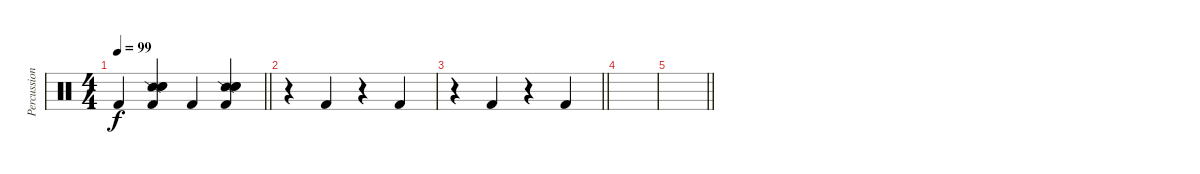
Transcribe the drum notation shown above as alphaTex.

\track ("Percussion" "Percussion") {instrument percussion}
\staff {score}
\articulation defaults
\ts (4 4)
\tempo 99
\clef neutral
\barLineRight lightlight
\ks c "Kick (hit) 2".4{dy f}
("Snare (side stick) 2" "Hand Clap (hit)" "Hand Clap (hit)" "Kick (hit) 2").4 "Kick (hit) 2".4 ("Snare (side stick) 2" "Hand Clap (hit)" "Hand Clap (hit)" "Kick (hit) 2").4 |
r.4 "Kick (hit) 2".4 r.4 "Kick (hit) 2".4 |
\barLineRight lightlight
r.4 "Kick (hit) 2".4 r.4 "Kick (hit) 2".4 |
|
\barLineRight lightlight
